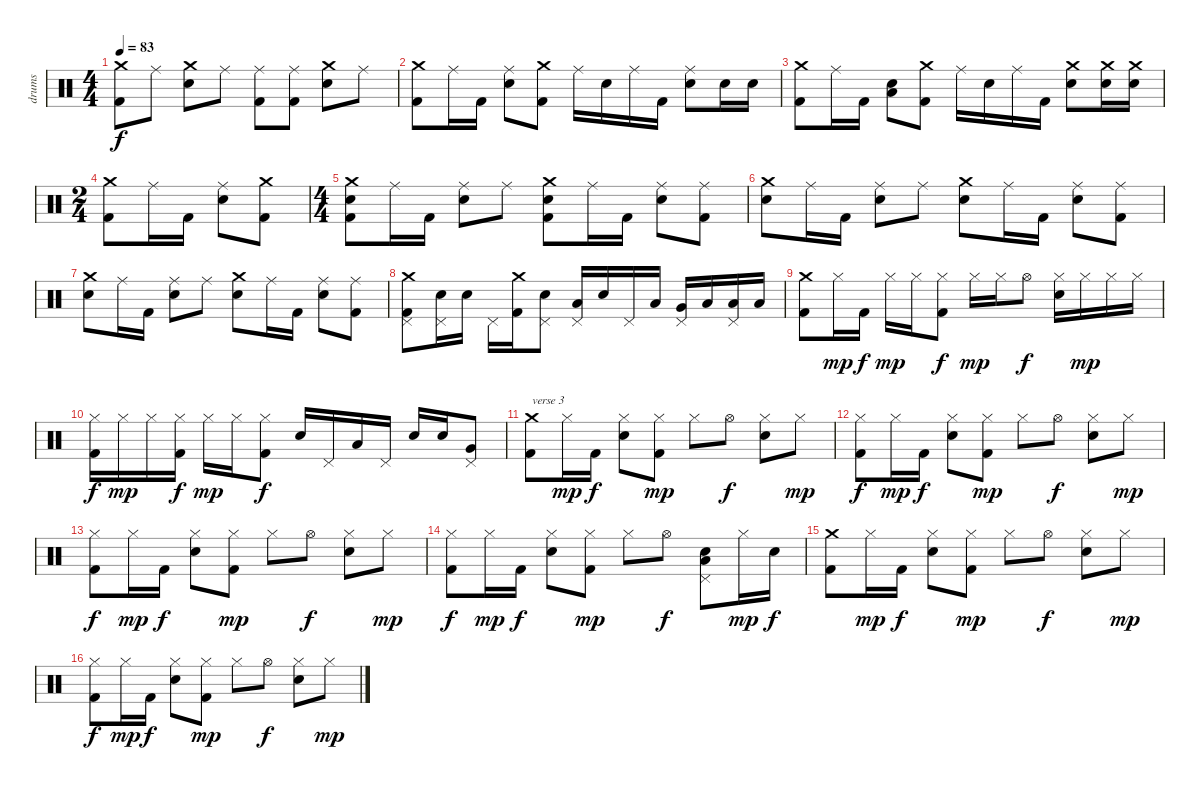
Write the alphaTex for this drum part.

\track ("drums" "drums") {instrument percussion}
\staff {score}
\articulation defaults
\ts (4 4)
\tempo 83
\clef neutral
\ks c
("Crash medium (hit)" "Kick (hit) 2").8{dy f} "Ride (middle)".8 ("Crash medium (hit)" "Electric Snare (hit)").8 "Ride (middle)".8 ("Ride (middle)" "Kick (hit) 2").8 ("Ride (middle)" "Kick (hit) 2").8 ("Crash medium (hit)" "Electric Snare (hit)").8 "Ride (middle)".8 |
("Crash medium (hit)" "Kick (hit) 2").8 "Ride (middle)".16 "Kick (hit) 2".16 ("Ride (middle)" "Electric Snare (hit)").8 ("Crash medium (hit)" "Kick (hit) 2").8 "Ride (middle)".16 "Electric Snare (hit)".16 "Ride (middle)".16 "Kick (hit) 2".16 ("Electric Snare (hit)" "Ride (middle)").8 "Electric Snare (hit)".16 "Electric Snare (hit)".16 |
("Crash medium (hit)" "Kick (hit) 2").8 "Ride (middle)".16 "Kick (hit) 2".16 ("Electric Snare (hit)" "Low Floor Tom (hit)").8 ("Crash medium (hit)" "Kick (hit) 2").8 "Ride (middle)".16 "Electric Snare (hit)".16 "Ride (middle)".16 "Kick (hit) 2".16 ("Crash medium (hit)" "Electric Snare (hit)").8 ("Crash medium (hit)" "Electric Snare (hit)").16 ("Crash medium (hit)" "Electric Snare (hit)").16 |
\ts (2 4)
("Crash medium (hit)" "Kick (hit) 2").8 "Ride (middle)".16 "Kick (hit) 2".16 ("Ride (middle)" "Electric Snare (hit)").8 ("Crash medium (hit)" "Kick (hit) 2").8 |
\ts (4 4)
("Crash medium (hit)" "Kick (hit) 2" "Electric Snare (hit)").8 "Ride (middle)".16 "Kick (hit) 2".16 ("Ride (middle)" "Electric Snare (hit)").8 "Ride (middle)".8 ("Crash medium (hit)" "Kick (hit) 2" "Electric Snare (hit)").8 "Ride (middle)".16 "Kick (hit) 2".16 ("Ride (middle)" "Electric Snare (hit)").8 ("Ride (middle)" "Kick (hit) 2").8 |
("Crash medium (hit)" "Electric Snare (hit)").8 "Ride (middle)".16 "Kick (hit) 2".16 ("Ride (middle)" "Electric Snare (hit)").8 "Ride (middle)".8 ("Crash medium (hit)" "Electric Snare (hit)").8 "Ride (middle)".16 "Kick (hit) 2".16 ("Ride (middle)" "Electric Snare (hit)").8 ("Ride (middle)" "Kick (hit) 2").8 |
("Crash medium (hit)" "Electric Snare (hit)").8 "Ride (middle)".16 "Kick (hit) 2".16 ("Ride (middle)" "Electric Snare (hit)").8 "Ride (middle)".8 ("Crash medium (hit)" "Electric Snare (hit)").8 "Ride (middle)".16 "Kick (hit) 2".16 ("Ride (middle)" "Electric Snare (hit)").8 ("Ride (middle)" "Kick (hit) 2").8 |
("Crash medium (hit)" "Kick (hit) 2" "Pedal Hi-Hat (hit)").8 ("Pedal Hi-Hat (hit)" "Electric Snare (hit)").16 "Electric Snare (hit)".16 "Pedal Hi-Hat (hit)".16 ("Crash medium (hit)" "Kick (hit) 2").16 ("Pedal Hi-Hat (hit)" "Electric Snare (hit)").8 ("Low Tom (hit)" "Pedal Hi-Hat (hit)").16 "Electric Snare (hit)".16 "Pedal Hi-Hat (hit)".16 "Low Tom (hit)".16 ("Very Low Tom (hit)" "Pedal Hi-Hat (hit)").16 "Low Floor Tom (hit)".16 ("Low Floor Tom (hit)" "Pedal Hi-Hat (hit)").16 "Low Floor Tom (hit)".16 |
("Crash medium (hit)" "Kick (hit) 2").8 "Hi-Hat (closed)".16{dy mp} "Kick (hit) 2".16{dy f} "Hi-Hat (closed)".16{dy mp} "Hi-Hat (closed)".16 ("Hi-Hat (closed)" "Kick (hit) 2").8{dy f} "Hi-Hat (closed)".16{dy mp} "Hi-Hat (closed)".16 "Hi-Hat (open)".8{dy f} ("Hi-Hat (closed)" "Electric Snare (hit)").16 "Hi-Hat (closed)".16{dy mp} "Hi-Hat (closed)".16 "Hi-Hat (closed)".16 |
("Hi-Hat (closed)" "Kick (hit) 2").16{dy f} "Hi-Hat (closed)".16{dy mp} "Hi-Hat (closed)".16 ("Hi-Hat (closed)" "Kick (hit) 2").16{dy f} "Hi-Hat (closed)".16{dy mp} "Hi-Hat (closed)".16 ("Hi-Hat (closed)" "Kick (hit) 2").8{dy f} "Electric Snare (hit)".16 "Pedal Hi-Hat (hit)".16 "Low Tom (hit)".16 "Pedal Hi-Hat (hit)".16 "Electric Snare (hit)".16 "Electric Snare (hit)".16 ("Very Low Tom (hit)" "Pedal Hi-Hat (hit)").8 |
("Crash medium (hit)" "Kick (hit) 2").8{txt "verse 3"} "Hi-Hat (closed)".16{dy mp} "Kick (hit) 2".16{dy f} ("Hi-Hat (closed)" "Electric Snare (hit)").8 ("Hi-Hat (closed)" "Kick (hit) 2").8{dy mp} "Hi-Hat (closed)".8 "Hi-Hat (open)".8{dy f} ("Hi-Hat (closed)" "Electric Snare (hit)").8 "Hi-Hat (closed)".8{dy mp} |
("Hi-Hat (closed)" "Kick (hit) 2").8{dy f} "Hi-Hat (closed)".16{dy mp} "Kick (hit) 2".16{dy f} ("Hi-Hat (closed)" "Electric Snare (hit)").8 ("Hi-Hat (closed)" "Kick (hit) 2").8{dy mp} "Hi-Hat (closed)".8 "Hi-Hat (open)".8{dy f} ("Hi-Hat (closed)" "Electric Snare (hit)").8 "Hi-Hat (closed)".8{dy mp} |
("Hi-Hat (closed)" "Kick (hit) 2").8{dy f} "Hi-Hat (closed)".16{dy mp} "Kick (hit) 2".16{dy f} ("Hi-Hat (closed)" "Electric Snare (hit)").8 ("Hi-Hat (closed)" "Kick (hit) 2").8{dy mp} "Hi-Hat (closed)".8 "Hi-Hat (open)".8{dy f} ("Hi-Hat (closed)" "Electric Snare (hit)").8 "Hi-Hat (closed)".8{dy mp} |
("Hi-Hat (closed)" "Kick (hit) 2").8{dy f} "Hi-Hat (closed)".16{dy mp} "Kick (hit) 2".16{dy f} ("Hi-Hat (closed)" "Electric Snare (hit)").8 ("Hi-Hat (closed)" "Kick (hit) 2").8{dy mp} "Hi-Hat (closed)".8 "Hi-Hat (open)".8{dy f} ("Pedal Hi-Hat (hit)" "Electric Snare (hit)" "Low Floor Tom (hit)").8 "Hi-Hat (closed)".16{dy mp} "Electric Snare (hit)".16{dy f} |
("Crash medium (hit)" "Kick (hit) 2").8 "Hi-Hat (closed)".16{dy mp} "Kick (hit) 2".16{dy f} ("Hi-Hat (closed)" "Electric Snare (hit)").8 ("Hi-Hat (closed)" "Kick (hit) 2").8{dy mp} "Hi-Hat (closed)".8 "Hi-Hat (open)".8{dy f} ("Hi-Hat (closed)" "Electric Snare (hit)").8 "Hi-Hat (closed)".8{dy mp} |
("Hi-Hat (closed)" "Kick (hit) 2").8{dy f} "Hi-Hat (closed)".16{dy mp} "Kick (hit) 2".16{dy f} ("Hi-Hat (closed)" "Electric Snare (hit)").8 ("Hi-Hat (closed)" "Kick (hit) 2").8{dy mp} "Hi-Hat (closed)".8 "Hi-Hat (open)".8{dy f} ("Hi-Hat (closed)" "Electric Snare (hit)").8 "Hi-Hat (closed)".8{dy mp}
